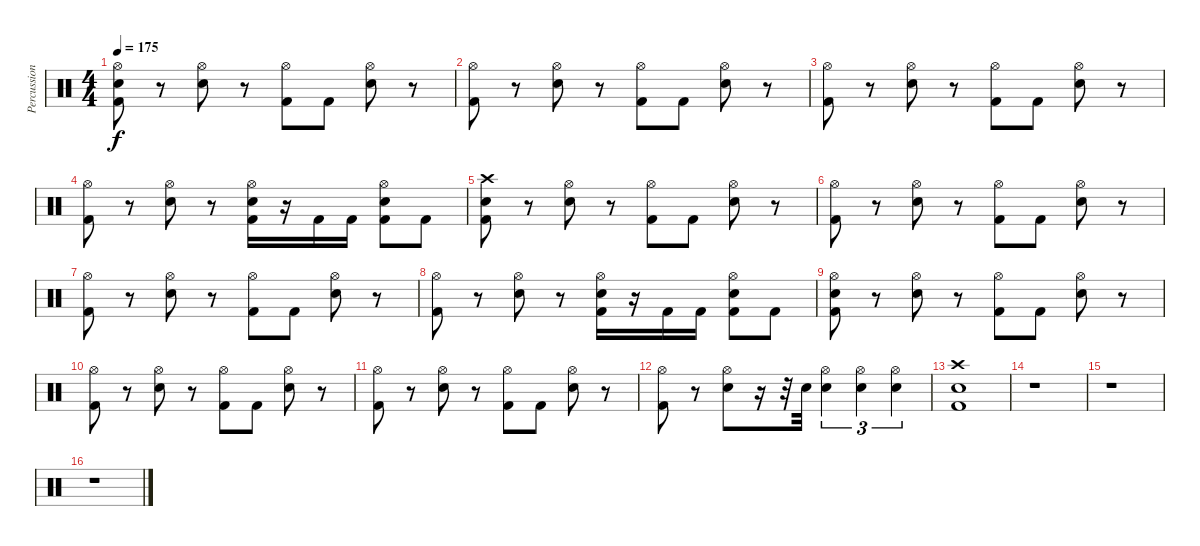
\track ("Percussions" "Percussion") {instrument percussion}
\staff {score}
\articulation defaults
\ts (4 4)
\tempo 175
\clef neutral
\ks c
("Kick (hit) 2" "Electric Snare (hit)" "Hi-Hat (open)").8{dy f} r.8 ("Electric Snare (hit)" "Hi-Hat (open)").8 r.8 ("Kick (hit) 2" "Hi-Hat (open)").8 "Kick (hit) 2".8 ("Electric Snare (hit)" "Hi-Hat (open)").8 r.8 |
("Kick (hit) 2" "Hi-Hat (open)").8 r.8 ("Electric Snare (hit)" "Hi-Hat (open)").8 r.8 ("Kick (hit) 2" "Hi-Hat (open)").8 "Kick (hit) 2".8 ("Electric Snare (hit)" "Hi-Hat (open)").8 r.8 |
("Kick (hit) 2" "Hi-Hat (open)").8 r.8 ("Electric Snare (hit)" "Hi-Hat (open)").8 r.8 ("Kick (hit) 2" "Hi-Hat (open)").8 "Kick (hit) 2".8 ("Electric Snare (hit)" "Hi-Hat (open)").8 r.8 |
("Kick (hit) 2" "Hi-Hat (open)").8 r.8 ("Electric Snare (hit)" "Hi-Hat (open)").8 r.8 ("Kick (hit) 2" "Electric Snare (hit)" "Hi-Hat (open)").16 r.16 "Kick (hit) 2".16 "Kick (hit) 2".16 ("Kick (hit) 2" "Electric Snare (hit)" "Hi-Hat (open)").8 "Kick (hit) 2".8 |
("Kick (hit) 2" "Electric Snare (hit)" "Crash high (hit)").8 r.8 ("Electric Snare (hit)" "Hi-Hat (open)").8 r.8 ("Kick (hit) 2" "Hi-Hat (open)").8 "Kick (hit) 2".8 ("Electric Snare (hit)" "Hi-Hat (open)").8 r.8 |
("Kick (hit) 2" "Hi-Hat (open)").8 r.8 ("Electric Snare (hit)" "Hi-Hat (open)").8 r.8 ("Kick (hit) 2" "Hi-Hat (open)").8 "Kick (hit) 2".8 ("Electric Snare (hit)" "Hi-Hat (open)").8 r.8 |
("Kick (hit) 2" "Hi-Hat (open)").8 r.8 ("Electric Snare (hit)" "Hi-Hat (open)").8 r.8 ("Kick (hit) 2" "Hi-Hat (open)").8 "Kick (hit) 2".8 ("Electric Snare (hit)" "Hi-Hat (open)").8 r.8 |
("Kick (hit) 2" "Hi-Hat (open)").8 r.8 ("Electric Snare (hit)" "Hi-Hat (open)").8 r.8 ("Kick (hit) 2" "Electric Snare (hit)" "Hi-Hat (open)").16 r.16 "Kick (hit) 2".16 "Kick (hit) 2".16 ("Kick (hit) 2" "Electric Snare (hit)" "Hi-Hat (open)").8 "Kick (hit) 2".8 |
("Kick (hit) 2" "Electric Snare (hit)" "Hi-Hat (open)").8 r.8 ("Electric Snare (hit)" "Hi-Hat (open)").8 r.8 ("Kick (hit) 2" "Hi-Hat (open)").8 "Kick (hit) 2".8 ("Electric Snare (hit)" "Hi-Hat (open)").8 r.8 |
("Kick (hit) 2" "Hi-Hat (open)").8 r.8 ("Electric Snare (hit)" "Hi-Hat (open)").8 r.8 ("Kick (hit) 2" "Hi-Hat (open)").8 "Kick (hit) 2".8 ("Electric Snare (hit)" "Hi-Hat (open)").8 r.8 |
("Kick (hit) 2" "Hi-Hat (open)").8 r.8 ("Electric Snare (hit)" "Hi-Hat (open)").8 r.8 ("Kick (hit) 2" "Hi-Hat (open)").8 "Kick (hit) 2".8 ("Electric Snare (hit)" "Hi-Hat (open)").8 r.8 |
("Kick (hit) 2" "Hi-Hat (open)").8 r.8 ("Electric Snare (hit)" "Hi-Hat (open)").8 r.16 r.32 "Electric Snare (hit)".32 ("Electric Snare (hit)" "Hi-Hat (open)").4{tu (3 2)} ("Electric Snare (hit)" "Hi-Hat (open)").4{tu (3 2)} ("Electric Snare (hit)" "Hi-Hat (open)").4{tu (3 2)} |
("Kick (hit) 2" "Electric Snare (hit)" "Crash high (hit)").1 |
r.1 |
r.1 |
r.1
